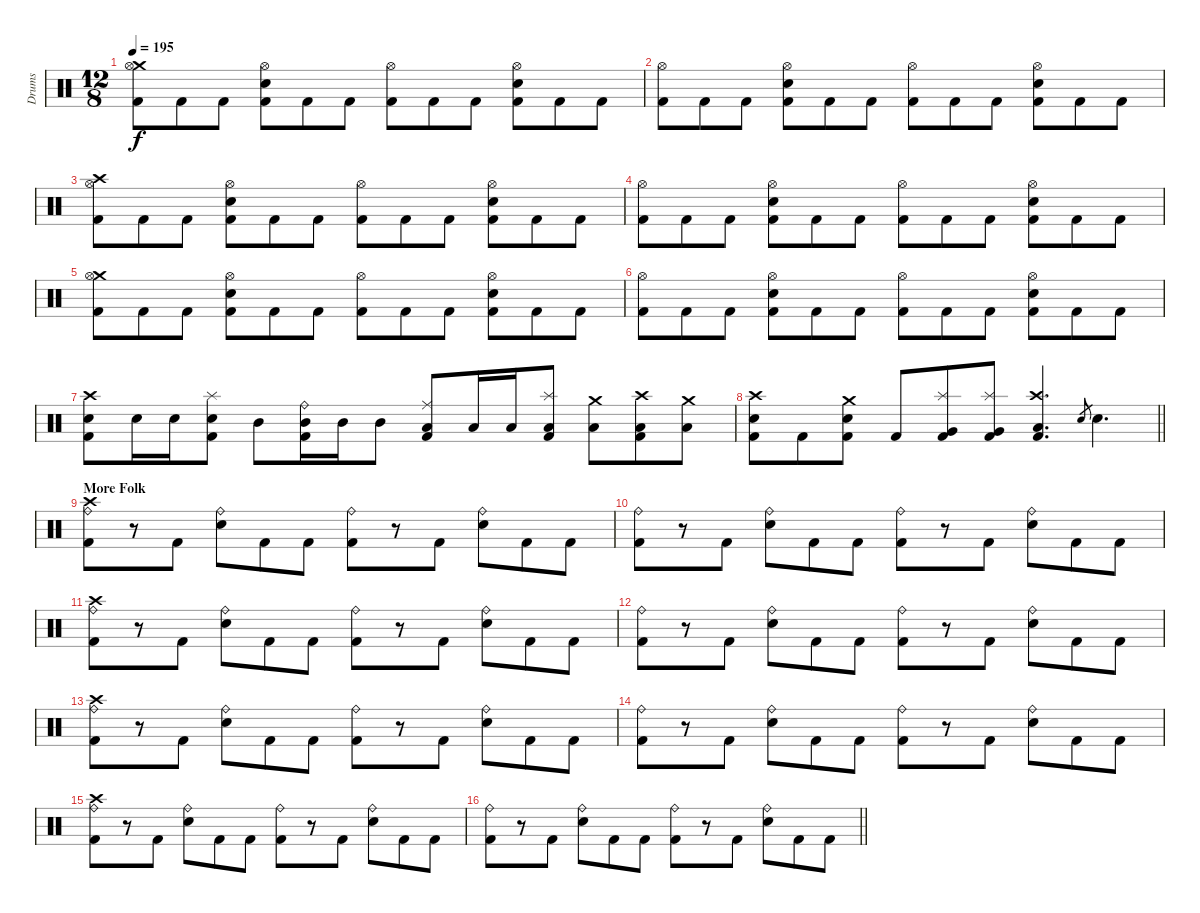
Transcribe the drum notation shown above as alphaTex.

\track ("Drums" "Drums") {instrument percussion}
\staff {score}
\articulation defaults
\ts (12 8)
\tempo 195
\clef neutral
\ks c
("Crash medium (hit)" "Hi-Hat (open)" "Kick (hit) 2").8{dy f} "Kick (hit) 2".8 "Kick (hit) 2".8 ("Hi-Hat (open)" "Snare (hit) 2" "Kick (hit) 2").8 "Kick (hit) 2".8 "Kick (hit) 2".8 ("Hi-Hat (open)" "Kick (hit) 2").8 "Kick (hit) 2".8 "Kick (hit) 2".8 ("Hi-Hat (open)" "Snare (hit) 2" "Kick (hit) 2").8 "Kick (hit) 2".8 "Kick (hit) 2".8 |
("Hi-Hat (open)" "Kick (hit) 2").8 "Kick (hit) 2".8 "Kick (hit) 2".8 ("Hi-Hat (open)" "Snare (hit) 2" "Kick (hit) 2").8 "Kick (hit) 2".8 "Kick (hit) 2".8 ("Hi-Hat (open)" "Kick (hit) 2").8 "Kick (hit) 2".8 "Kick (hit) 2".8 ("Hi-Hat (open)" "Snare (hit) 2" "Kick (hit) 2").8 "Kick (hit) 2".8 "Kick (hit) 2".8 |
("Crash high (hit)" "Hi-Hat (open)" "Kick (hit) 2").8 "Kick (hit) 2".8 "Kick (hit) 2".8 ("Hi-Hat (open)" "Snare (hit) 2" "Kick (hit) 2").8 "Kick (hit) 2".8 "Kick (hit) 2".8 ("Hi-Hat (open)" "Kick (hit) 2").8 "Kick (hit) 2".8 "Kick (hit) 2".8 ("Hi-Hat (open)" "Snare (hit) 2" "Kick (hit) 2").8 "Kick (hit) 2".8 "Kick (hit) 2".8 |
("Hi-Hat (open)" "Kick (hit) 2").8 "Kick (hit) 2".8 "Kick (hit) 2".8 ("Hi-Hat (open)" "Snare (hit) 2" "Kick (hit) 2").8 "Kick (hit) 2".8 "Kick (hit) 2".8 ("Hi-Hat (open)" "Kick (hit) 2").8 "Kick (hit) 2".8 "Kick (hit) 2".8 ("Hi-Hat (open)" "Snare (hit) 2" "Kick (hit) 2").8 "Kick (hit) 2".8 "Kick (hit) 2".8 |
("Crash medium (hit)" "Hi-Hat (open)" "Kick (hit) 2").8 "Kick (hit) 2".8 "Kick (hit) 2".8 ("Hi-Hat (open)" "Snare (hit) 2" "Kick (hit) 2").8 "Kick (hit) 2".8 "Kick (hit) 2".8 ("Hi-Hat (open)" "Kick (hit) 2").8 "Kick (hit) 2".8 "Kick (hit) 2".8 ("Hi-Hat (open)" "Snare (hit) 2" "Kick (hit) 2").8 "Kick (hit) 2".8 "Kick (hit) 2".8 |
("Hi-Hat (open)" "Kick (hit) 2").8 "Kick (hit) 2".8 "Kick (hit) 2".8 ("Hi-Hat (open)" "Snare (hit) 2" "Kick (hit) 2").8 "Kick (hit) 2".8 "Kick (hit) 2".8 ("Hi-Hat (open)" "Kick (hit) 2").8 "Kick (hit) 2".8 "Kick (hit) 2".8 ("Hi-Hat (open)" "Snare (hit) 2" "Kick (hit) 2").8 "Kick (hit) 2".8 "Kick (hit) 2".8 |
("Crash high (hit)" "Snare (hit) 2" "Kick (hit) 2").8 "Snare (hit) 2".16 "Snare (hit) 2".16 ("Splash (hit)" "Snare (hit) 2" "Kick (hit) 2").8 "Mid Tom (hit)".8 ("Ride (bell)" "Mid Tom (hit)" "Kick (hit) 2").16 "Mid Tom (hit)".16 "Mid Tom (hit)".8 ("Ride (middle)" "Low Tom (hit)" "Kick (hit) 2").8 "Low Tom (hit)".16 "Low Tom (hit)".16 ("Splash (hit)" "Low Tom (hit)" "Kick (hit) 2").8 ("Crash medium (hit)" "Low Floor Tom (hit)").8 ("Crash high (hit)" "Low Floor Tom (hit)" "Kick (hit) 2").8 ("Crash medium (hit)" "Low Floor Tom (hit)").8 |
\barLineRight lightlight
("Crash high (hit)" "Snare (hit) 2" "Kick (hit) 2").8 "Kick (hit) 2".8 ("Crash medium (hit)" "Snare (hit) 2" "Kick (hit) 2").8 "Kick (hit) 2".8 ("Splash (hit)" "Very Low Tom (hit)" "Kick (hit) 2").8 ("Splash (hit)" "Very Low Tom (hit)" "Kick (hit) 2").8 ("Crash high (hit)" "Low Floor Tom (hit)" "Kick (hit) 2").4{d} "Snare (hit) 2".8{gr} "Snare (hit) 2".4{d} |
\section ("" "More Folk")
("Crash high (hit)" "Ride (bell)" "Kick (hit) 2").8 r.8 "Kick (hit) 2".8 ("Ride (bell)" "Snare (hit) 2").8 "Kick (hit) 2".8 "Kick (hit) 2".8 ("Ride (bell)" "Kick (hit) 2").8 r.8 "Kick (hit) 2".8 ("Ride (bell)" "Snare (hit) 2").8 "Kick (hit) 2".8 "Kick (hit) 2".8 |
("Ride (bell)" "Kick (hit) 2").8 r.8 "Kick (hit) 2".8 ("Ride (bell)" "Snare (hit) 2").8 "Kick (hit) 2".8 "Kick (hit) 2".8 ("Ride (bell)" "Kick (hit) 2").8 r.8 "Kick (hit) 2".8 ("Ride (bell)" "Snare (hit) 2").8 "Kick (hit) 2".8 "Kick (hit) 2".8 |
("Crash high (hit)" "Ride (bell)" "Kick (hit) 2").8 r.8 "Kick (hit) 2".8 ("Ride (bell)" "Snare (hit) 2").8 "Kick (hit) 2".8 "Kick (hit) 2".8 ("Ride (bell)" "Kick (hit) 2").8 r.8 "Kick (hit) 2".8 ("Ride (bell)" "Snare (hit) 2").8 "Kick (hit) 2".8 "Kick (hit) 2".8 |
("Ride (bell)" "Kick (hit) 2").8 r.8 "Kick (hit) 2".8 ("Ride (bell)" "Snare (hit) 2").8 "Kick (hit) 2".8 "Kick (hit) 2".8 ("Ride (bell)" "Kick (hit) 2").8 r.8 "Kick (hit) 2".8 ("Ride (bell)" "Snare (hit) 2").8 "Kick (hit) 2".8 "Kick (hit) 2".8 |
("Crash high (hit)" "Ride (bell)" "Kick (hit) 2").8 r.8 "Kick (hit) 2".8 ("Ride (bell)" "Snare (hit) 2").8 "Kick (hit) 2".8 "Kick (hit) 2".8 ("Ride (bell)" "Kick (hit) 2").8 r.8 "Kick (hit) 2".8 ("Ride (bell)" "Snare (hit) 2").8 "Kick (hit) 2".8 "Kick (hit) 2".8 |
("Ride (bell)" "Kick (hit) 2").8 r.8 "Kick (hit) 2".8 ("Ride (bell)" "Snare (hit) 2").8 "Kick (hit) 2".8 "Kick (hit) 2".8 ("Ride (bell)" "Kick (hit) 2").8 r.8 "Kick (hit) 2".8 ("Ride (bell)" "Snare (hit) 2").8 "Kick (hit) 2".8 "Kick (hit) 2".8 |
("Crash high (hit)" "Ride (bell)" "Kick (hit) 2").8 r.8 "Kick (hit) 2".8 ("Ride (bell)" "Snare (hit) 2").8 "Kick (hit) 2".8 "Kick (hit) 2".8 ("Ride (bell)" "Kick (hit) 2").8 r.8 "Kick (hit) 2".8 ("Ride (bell)" "Snare (hit) 2").8 "Kick (hit) 2".8 "Kick (hit) 2".8 |
\barLineRight lightlight
("Ride (bell)" "Kick (hit) 2").8 r.8 "Kick (hit) 2".8 ("Ride (bell)" "Snare (hit) 2").8 "Kick (hit) 2".8 "Kick (hit) 2".8 ("Ride (bell)" "Kick (hit) 2").8 r.8 "Kick (hit) 2".8 ("Ride (bell)" "Snare (hit) 2").8 "Kick (hit) 2".8 "Kick (hit) 2".8
